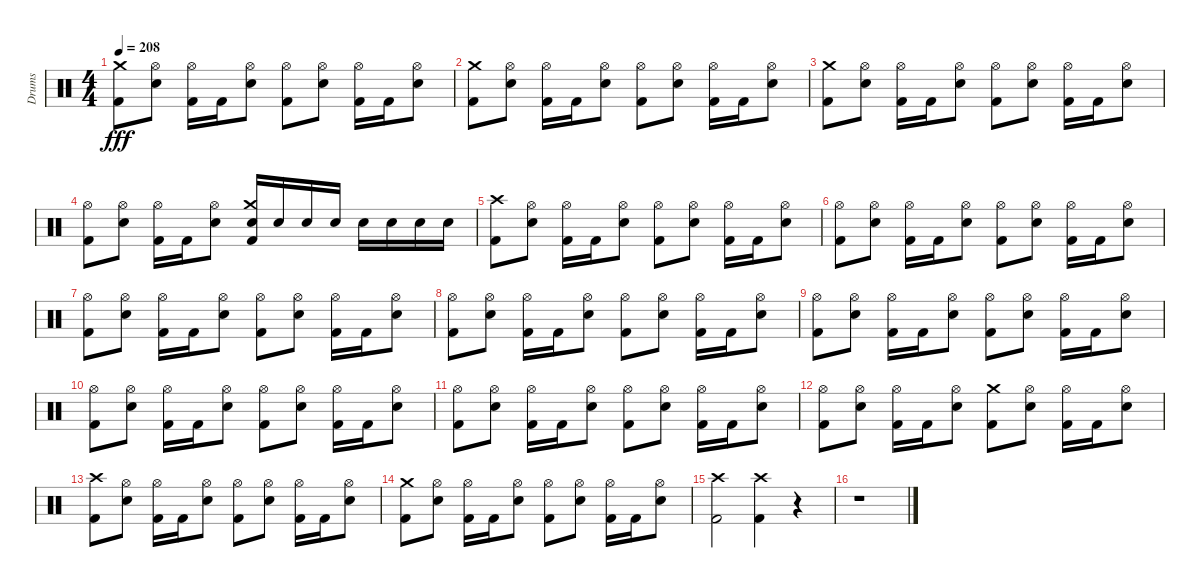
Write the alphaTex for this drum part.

\track ("Drums" "Drums") {instrument percussion}
\staff {score}
\articulation defaults
\ts (4 4)
\tempo 208
\clef neutral
\ks c
("Kick (hit) 2" "Crash medium (hit)").8{dy fff} ("Electric Snare (hit)" "Hi-Hat (open)").8 ("Hi-Hat (open)" "Kick (hit) 2").16 "Kick (hit) 2".16 ("Electric Snare (hit)" "Hi-Hat (open)").8 ("Hi-Hat (open)" "Kick (hit) 2").8 ("Electric Snare (hit)" "Hi-Hat (open)").8 ("Hi-Hat (open)" "Kick (hit) 2").16 "Kick (hit) 2".16 ("Electric Snare (hit)" "Hi-Hat (open)").8 |
("Kick (hit) 2" "Crash medium (hit)").8 ("Electric Snare (hit)" "Hi-Hat (open)").8 ("Hi-Hat (open)" "Kick (hit) 2").16 "Kick (hit) 2".16 ("Electric Snare (hit)" "Hi-Hat (open)").8 ("Hi-Hat (open)" "Kick (hit) 2").8 ("Electric Snare (hit)" "Hi-Hat (open)").8 ("Hi-Hat (open)" "Kick (hit) 2").16 "Kick (hit) 2".16 ("Electric Snare (hit)" "Hi-Hat (open)").8 |
("Kick (hit) 2" "Crash medium (hit)").8 ("Electric Snare (hit)" "Hi-Hat (open)").8 ("Hi-Hat (open)" "Kick (hit) 2").16 "Kick (hit) 2".16 ("Electric Snare (hit)" "Hi-Hat (open)").8 ("Hi-Hat (open)" "Kick (hit) 2").8 ("Electric Snare (hit)" "Hi-Hat (open)").8 ("Hi-Hat (open)" "Kick (hit) 2").16 "Kick (hit) 2".16 ("Electric Snare (hit)" "Hi-Hat (open)").8 |
("Hi-Hat (open)" "Kick (hit) 2").8 ("Electric Snare (hit)" "Hi-Hat (open)").8 ("Hi-Hat (open)" "Kick (hit) 2").16 "Kick (hit) 2".16 ("Electric Snare (hit)" "Hi-Hat (open)").8 ("Kick (hit) 2" "Electric Snare (hit)" "Crash medium (hit)").16 "Electric Snare (hit)".16 "Electric Snare (hit)".16 "Electric Snare (hit)".16 "Electric Snare (hit)".16 "Electric Snare (hit)".16 "Electric Snare (hit)".16 "Electric Snare (hit)".16 |
("Kick (hit) 2" "Crash high (hit)").8 ("Electric Snare (hit)" "Hi-Hat (open)").8 ("Hi-Hat (open)" "Kick (hit) 2").16 "Kick (hit) 2".16 ("Electric Snare (hit)" "Hi-Hat (open)").8 ("Hi-Hat (open)" "Kick (hit) 2").8 ("Electric Snare (hit)" "Hi-Hat (open)").8 ("Hi-Hat (open)" "Kick (hit) 2").16 "Kick (hit) 2".16 ("Electric Snare (hit)" "Hi-Hat (open)").8 |
("Hi-Hat (open)" "Kick (hit) 2").8 ("Electric Snare (hit)" "Hi-Hat (open)").8 ("Hi-Hat (open)" "Kick (hit) 2").16 "Kick (hit) 2".16 ("Electric Snare (hit)" "Hi-Hat (open)").8 ("Hi-Hat (open)" "Kick (hit) 2").8 ("Electric Snare (hit)" "Hi-Hat (open)").8 ("Hi-Hat (open)" "Kick (hit) 2").16 "Kick (hit) 2".16 ("Electric Snare (hit)" "Hi-Hat (open)").8 |
("Hi-Hat (open)" "Kick (hit) 2").8 ("Electric Snare (hit)" "Hi-Hat (open)").8 ("Hi-Hat (open)" "Kick (hit) 2").16 "Kick (hit) 2".16 ("Electric Snare (hit)" "Hi-Hat (open)").8 ("Hi-Hat (open)" "Kick (hit) 2").8 ("Electric Snare (hit)" "Hi-Hat (open)").8 ("Hi-Hat (open)" "Kick (hit) 2").16 "Kick (hit) 2".16 ("Electric Snare (hit)" "Hi-Hat (open)").8 |
("Hi-Hat (open)" "Kick (hit) 2").8 ("Electric Snare (hit)" "Hi-Hat (open)").8 ("Hi-Hat (open)" "Kick (hit) 2").16 "Kick (hit) 2".16 ("Electric Snare (hit)" "Hi-Hat (open)").8 ("Hi-Hat (open)" "Kick (hit) 2").8 ("Electric Snare (hit)" "Hi-Hat (open)").8 ("Hi-Hat (open)" "Kick (hit) 2").16 "Kick (hit) 2".16 ("Electric Snare (hit)" "Hi-Hat (open)").8 |
("Hi-Hat (open)" "Kick (hit) 2").8 ("Electric Snare (hit)" "Hi-Hat (open)").8 ("Hi-Hat (open)" "Kick (hit) 2").16 "Kick (hit) 2".16 ("Electric Snare (hit)" "Hi-Hat (open)").8 ("Hi-Hat (open)" "Kick (hit) 2").8 ("Electric Snare (hit)" "Hi-Hat (open)").8 ("Hi-Hat (open)" "Kick (hit) 2").16 "Kick (hit) 2".16 ("Electric Snare (hit)" "Hi-Hat (open)").8 |
("Hi-Hat (open)" "Kick (hit) 2").8 ("Electric Snare (hit)" "Hi-Hat (open)").8 ("Hi-Hat (open)" "Kick (hit) 2").16 "Kick (hit) 2".16 ("Electric Snare (hit)" "Hi-Hat (open)").8 ("Hi-Hat (open)" "Kick (hit) 2").8 ("Electric Snare (hit)" "Hi-Hat (open)").8 ("Hi-Hat (open)" "Kick (hit) 2").16 "Kick (hit) 2".16 ("Electric Snare (hit)" "Hi-Hat (open)").8 |
("Hi-Hat (open)" "Kick (hit) 2").8 ("Electric Snare (hit)" "Hi-Hat (open)").8 ("Hi-Hat (open)" "Kick (hit) 2").16 "Kick (hit) 2".16 ("Electric Snare (hit)" "Hi-Hat (open)").8 ("Hi-Hat (open)" "Kick (hit) 2").8 ("Electric Snare (hit)" "Hi-Hat (open)").8 ("Hi-Hat (open)" "Kick (hit) 2").16 "Kick (hit) 2".16 ("Electric Snare (hit)" "Hi-Hat (open)").8 |
("Hi-Hat (open)" "Kick (hit) 2").8 ("Electric Snare (hit)" "Hi-Hat (open)").8 ("Hi-Hat (open)" "Kick (hit) 2").16 "Kick (hit) 2".16 ("Electric Snare (hit)" "Hi-Hat (open)").8 ("Kick (hit) 2" "Crash medium (hit)").8 ("Electric Snare (hit)" "Hi-Hat (open)").8 ("Hi-Hat (open)" "Kick (hit) 2").16 "Kick (hit) 2".16 ("Electric Snare (hit)" "Hi-Hat (open)").8 |
("Crash high (hit)" "Kick (hit) 2").8 ("Electric Snare (hit)" "Hi-Hat (open)").8 ("Kick (hit) 2" "Hi-Hat (open)").16 "Kick (hit) 2".16 ("Electric Snare (hit)" "Hi-Hat (open)").8 ("Kick (hit) 2" "Hi-Hat (open)").8 ("Electric Snare (hit)" "Hi-Hat (open)").8 ("Kick (hit) 2" "Hi-Hat (open)").16 "Kick (hit) 2".16 ("Electric Snare (hit)" "Hi-Hat (open)").8 |
("Crash medium (hit)" "Kick (hit) 2").8 ("Electric Snare (hit)" "Hi-Hat (open)").8 ("Kick (hit) 2" "Hi-Hat (open)").16 "Kick (hit) 2".16 ("Electric Snare (hit)" "Hi-Hat (open)").8 ("Kick (hit) 2" "Hi-Hat (open)").8 ("Electric Snare (hit)" "Hi-Hat (open)").8 ("Kick (hit) 2" "Hi-Hat (open)").16 "Kick (hit) 2".16 ("Electric Snare (hit)" "Hi-Hat (open)").8 |
("Crash high (hit)" "Kick (hit) 2").2 ("Kick (hit) 2" "Crash high (hit)").4 r.4 |
r.1
